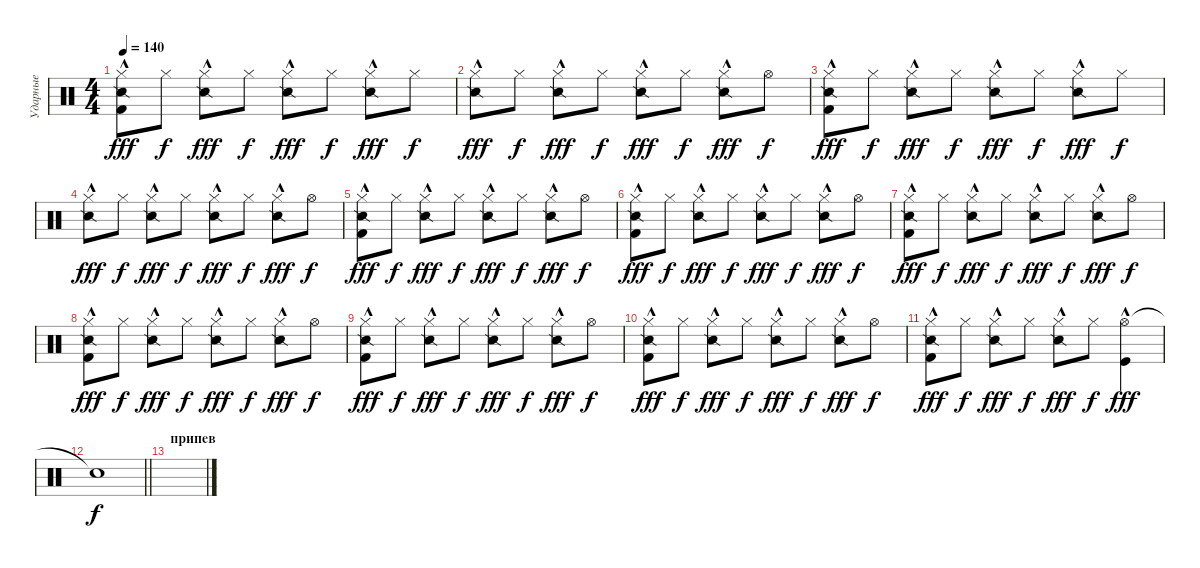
\track ("Ударные" "Ударные") {instrument percussion}
\staff {score}
\articulation defaults
\ts (4 4)
\tempo 140
\clef neutral
\ks c
("Hi-Hat (closed)"{hac} "Snare (side stick) 2" "Kick (hit) 2").8{dy fff} "Hi-Hat (closed)".8{dy f} ("Hi-Hat (closed)"{hac} "Snare (side stick) 2").8{dy fff} "Hi-Hat (closed)".8{dy f} ("Hi-Hat (closed)"{hac} "Snare (side stick) 2").8{dy fff} "Hi-Hat (closed)".8{dy f} ("Hi-Hat (closed)"{hac} "Snare (side stick) 2").8{dy fff} "Hi-Hat (closed)".8{dy f} |
("Hi-Hat (closed)"{hac} "Snare (side stick) 2").8{dy fff} "Hi-Hat (closed)".8{dy f} ("Hi-Hat (closed)"{hac} "Snare (side stick) 2").8{dy fff} "Hi-Hat (closed)".8{dy f} ("Hi-Hat (closed)"{hac} "Snare (side stick) 2").8{dy fff} "Hi-Hat (closed)".8{dy f} ("Hi-Hat (closed)"{hac} "Snare (side stick) 2").8{dy fff} "Hi-Hat (open)".8{dy f} |
("Hi-Hat (closed)"{hac} "Snare (side stick) 2" "Kick (hit) 2").8{dy fff} "Hi-Hat (closed)".8{dy f} ("Hi-Hat (closed)"{hac} "Snare (side stick) 2").8{dy fff} "Hi-Hat (closed)".8{dy f} ("Hi-Hat (closed)"{hac} "Snare (side stick) 2").8{dy fff} "Hi-Hat (closed)".8{dy f} ("Hi-Hat (closed)"{hac} "Snare (side stick) 2").8{dy fff} "Hi-Hat (closed)".8{dy f} |
("Hi-Hat (closed)"{hac} "Snare (side stick) 2").8{dy fff} "Hi-Hat (closed)".8{dy f} ("Hi-Hat (closed)"{hac} "Snare (side stick) 2").8{dy fff} "Hi-Hat (closed)".8{dy f} ("Hi-Hat (closed)"{hac} "Snare (side stick) 2").8{dy fff} "Hi-Hat (closed)".8{dy f} ("Hi-Hat (closed)"{hac} "Snare (side stick) 2").8{dy fff} "Hi-Hat (open)".8{dy f} |
("Hi-Hat (closed)"{hac} "Snare (side stick) 2" "Kick (hit) 2").8{dy fff} "Hi-Hat (closed)".8{dy f} ("Hi-Hat (closed)"{hac} "Snare (side stick) 2").8{dy fff} "Hi-Hat (closed)".8{dy f} ("Hi-Hat (closed)"{hac} "Snare (side stick) 2").8{dy fff} "Hi-Hat (closed)".8{dy f} ("Hi-Hat (closed)"{hac} "Snare (side stick) 2").8{dy fff} "Hi-Hat (open)".8{dy f} |
("Hi-Hat (closed)"{hac} "Snare (side stick) 2" "Kick (hit) 2").8{dy fff} "Hi-Hat (closed)".8{dy f} ("Hi-Hat (closed)"{hac} "Snare (side stick) 2").8{dy fff} "Hi-Hat (closed)".8{dy f} ("Hi-Hat (closed)"{hac} "Snare (side stick) 2").8{dy fff} "Hi-Hat (closed)".8{dy f} ("Hi-Hat (closed)"{hac} "Snare (side stick) 2").8{dy fff} "Hi-Hat (open)".8{dy f} |
("Hi-Hat (closed)"{hac} "Snare (side stick) 2" "Kick (hit) 2").8{dy fff} "Hi-Hat (closed)".8{dy f} ("Hi-Hat (closed)"{hac} "Snare (side stick) 2").8{dy fff} "Hi-Hat (closed)".8{dy f} ("Hi-Hat (closed)"{hac} "Snare (side stick) 2").8{dy fff} "Hi-Hat (closed)".8{dy f} ("Hi-Hat (closed)"{hac} "Snare (side stick) 2").8{dy fff} "Hi-Hat (open)".8{dy f} |
("Hi-Hat (closed)"{hac} "Snare (side stick) 2" "Kick (hit) 2").8{dy fff} "Hi-Hat (closed)".8{dy f} ("Hi-Hat (closed)"{hac} "Snare (side stick) 2").8{dy fff} "Hi-Hat (closed)".8{dy f} ("Hi-Hat (closed)"{hac} "Snare (side stick) 2").8{dy fff} "Hi-Hat (closed)".8{dy f} ("Hi-Hat (closed)"{hac} "Snare (side stick) 2").8{dy fff} "Hi-Hat (open)".8{dy f} |
("Hi-Hat (closed)"{hac} "Snare (side stick) 2" "Kick (hit) 2").8{dy fff} "Hi-Hat (closed)".8{dy f} ("Hi-Hat (closed)"{hac} "Snare (side stick) 2").8{dy fff} "Hi-Hat (closed)".8{dy f} ("Hi-Hat (closed)"{hac} "Snare (side stick) 2").8{dy fff} "Hi-Hat (closed)".8{dy f} ("Hi-Hat (closed)"{hac} "Snare (side stick) 2").8{dy fff} "Hi-Hat (open)".8{dy f} |
("Hi-Hat (closed)"{hac} "Snare (side stick) 2" "Kick (hit) 2").8{dy fff} "Hi-Hat (closed)".8{dy f} ("Hi-Hat (closed)"{hac} "Snare (side stick) 2").8{dy fff} "Hi-Hat (closed)".8{dy f} ("Hi-Hat (closed)"{hac} "Snare (side stick) 2").8{dy fff} "Hi-Hat (closed)".8{dy f} ("Hi-Hat (closed)"{hac} "Snare (side stick) 2").8{dy fff} "Hi-Hat (open)".8{dy f} |
("Hi-Hat (closed)"{hac} "Snare (side stick) 2" "Kick (hit) 2").8{dy fff} "Hi-Hat (closed)".8{dy f} ("Hi-Hat (closed)"{hac} "Snare (side stick) 2").8{dy fff} "Hi-Hat (closed)".8{dy f} ("Hi-Hat (closed)"{hac} "Snare (side stick) 2").8{dy fff} "Hi-Hat (closed)".8{dy f} ("Hi-Hat (open)"{hac} "Kick (hit)").4{dy fff} |
\barLineRight lightlight "Snare (hit)"{t}.1{dy f}
|
\section ("" "припев")
